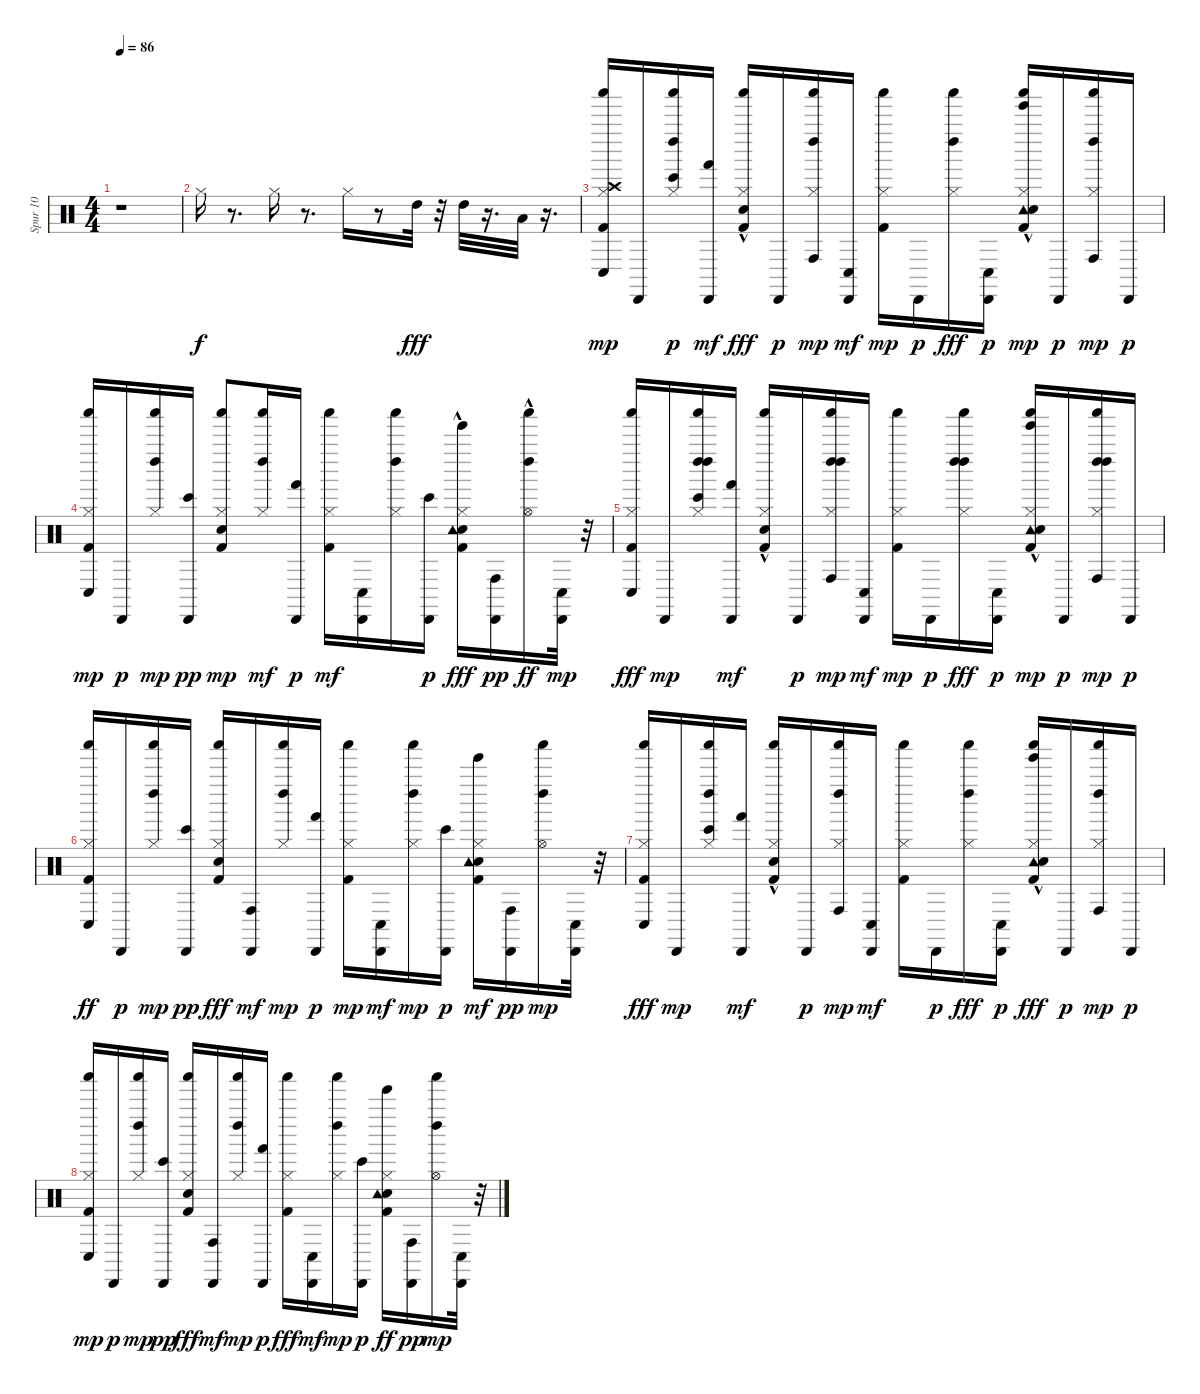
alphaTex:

\track ("Spur 10" "Spur 10") {instrument percussion}
\staff {score}
\articulation defaults
\ts (4 4)
\tempo 86
\clef neutral
\ks c
r.1{dy f} |
"Hi-Hat (closed)".16 r.8{d} "Hi-Hat (closed)".16 r.8{d} "Hi-Hat (closed)".16 r.8 "High Tom (hit)".32{dy fff} r.32 "High Tom (hit)".32 r.16{d} "Low Tom (hit)".32 r.16{d} |
("Crash high (hit)" "Kick (hit) 2" "Shaker (hit)" "Conga low (hit)" "Hi-Hat (closed)").16{dy mp} "Cabasa (hit)".16 ("Hi-Hat (closed)" "Shaker (hit)" "Bongo High (hit)" "Left Maraca (hit)").16{dy p} ("Cabasa (hit)" "Hand (hit)").16{dy mf} ("Hi-Hat (closed)" "Snare (hit) 2"{hac} "Shaker (hit)" "Kick (hit) 2").16{dy fff} "Cabasa (hit)".16{dy p} ("Hi-Hat (closed)" "Conga high (hit)" "Shaker (hit)" "Left Maraca (hit)").16{dy mp} ("Cabasa (hit)" "Conga low (hit)").16{dy mf} ("Shaker (hit)" "Kick (hit) 2" "Hi-Hat (closed)").16{dy mp} "Cabasa (hit)".16{dy p} ("Shaker (hit)" "Hi-Hat (closed)" "Left Maraca (hit)").16{dy fff} ("Cabasa (hit)" "Conga low (hit)").16{dy p} ("Tinkle Bell (hit)" "Tambourine (hit)"{hac} "Shaker (hit)" "Kick (hit) 2" "Snare (hit) 2"{hac} "Hi-Hat (closed)").16{dy mp} "Cabasa (hit)".16{dy p} ("Shaker (hit)" "Conga high (hit)" "Hi-Hat (closed)" "Left Maraca (hit)").16{dy mp} "Cabasa (hit)".16{dy p} |
("Shaker (hit)" "Kick (hit) 2" "Conga low (hit)" "Hi-Hat (closed)").16{dy mp} "Cabasa (hit)".16{dy p} ("Shaker (hit)" "Hi-Hat (closed)" "Left Maraca (hit)").16{dy mp} ("Bongo High (hit)" "Cabasa (hit)").16{dy pp} ("Shaker (hit)" "Kick (hit) 2" "Snare (hit) 2" "Hi-Hat (closed)").8{dy mp} ("Shaker (hit)" "Hi-Hat (closed)" "Left Maraca (hit)").16{dy mf} ("Hand (hit)" "Cabasa (hit)").16{dy p} ("Shaker (hit)" "Kick (hit) 2" "Hi-Hat (closed)").16{dy mf} ("Cabasa (hit)" "Conga low (hit)").16 ("Shaker (hit)" "Hi-Hat (closed)" "Left Maraca (hit)").16 ("Bongo High (hit)" "Cabasa (hit)").16{dy p} ("Tinkle Bell (hit)"{hac} "Snare (hit) 2" "Tambourine (hit)" "Hi-Hat (closed)" "Kick (hit) 2").16{dy fff} ("Conga high (hit)" "Cabasa (hit)").16{dy pp} ("Shaker (hit)" "Hi-Hat (open)"{hac} "Left Maraca (hit)").16{dy ff} ("Conga low (hit)" "Cabasa (hit)").32{dy mp} r.32 |
("Hi-Hat (closed)" "Kick (hit) 2" "Shaker (hit)" "Conga low (hit)").16{dy fff} "Cabasa (hit)".16{dy mp} ("Shaker (hit)" "Bongo High (hit)" "Hi-Hat (closed)" "Left Maraca (hit)" "Left Maraca (hit)").16 ("Cabasa (hit)" "Hand (hit)").16{dy mf} ("Snare (hit) 2"{hac} "Shaker (hit)" "Kick (hit) 2" "Hi-Hat (closed)").16 "Cabasa (hit)".16{dy p} ("Hi-Hat (closed)" "Conga high (hit)" "Shaker (hit)" "Left Maraca (hit)" "Left Maraca (hit)").16{dy mp} ("Cabasa (hit)" "Conga low (hit)").16{dy mf} ("Shaker (hit)" "Kick (hit) 2" "Hi-Hat (closed)").16{dy mp} "Cabasa (hit)".16{dy p} ("Shaker (hit)" "Hi-Hat (closed)" "Left Maraca (hit)" "Left Maraca (hit)").16{dy fff} ("Cabasa (hit)" "Conga low (hit)").16{dy p} ("Tinkle Bell (hit)"{hac} "Tambourine (hit)"{hac} "Shaker (hit)" "Kick (hit) 2" "Snare (hit) 2"{hac} "Hi-Hat (closed)").16{dy mp} "Cabasa (hit)".16{dy p} ("Shaker (hit)" "Conga high (hit)" "Hi-Hat (closed)" "Left Maraca (hit)" "Left Maraca (hit)").16{dy mp} "Cabasa (hit)".16{dy p} |
("Hi-Hat (closed)" "Shaker (hit)" "Kick (hit) 2" "Conga low (hit)").16{dy ff} "Cabasa (hit)".16{dy p} ("Hi-Hat (closed)" "Shaker (hit)" "Left Maraca (hit)").16{dy mp} ("Bongo High (hit)" "Cabasa (hit)").16{dy pp} ("Hi-Hat (closed)" "Shaker (hit)" "Kick (hit) 2" "Snare (hit) 2").16{dy fff} ("Cabasa (hit)" "Conga high (hit)").16{dy mf} ("Hi-Hat (closed)" "Shaker (hit)" "Left Maraca (hit)").16{dy mp} ("Hand (hit)" "Cabasa (hit)").16{dy p} ("Shaker (hit)" "Kick (hit) 2" "Hi-Hat (closed)").16{dy mp} ("Cabasa (hit)" "Conga low (hit)").16{dy mf} ("Hi-Hat (closed)" "Shaker (hit)" "Left Maraca (hit)").16{dy mp} ("Bongo High (hit)" "Cabasa (hit)").16{dy p} ("Kick (hit) 2" "Tinkle Bell (hit)" "Snare (hit) 2" "Tambourine (hit)" "Hi-Hat (closed)").16{dy mf} ("Conga high (hit)" "Cabasa (hit)").16{dy pp} ("Hi-Hat (open)" "Shaker (hit)" "Left Maraca (hit)").16{dy mp} ("Conga low (hit)" "Cabasa (hit)").32 r.32 |
("Hi-Hat (closed)" "Kick (hit) 2" "Shaker (hit)" "Conga low (hit)").16{dy fff} "Cabasa (hit)".16{dy mp} ("Shaker (hit)" "Bongo High (hit)" "Hi-Hat (closed)" "Left Maraca (hit)").16 ("Cabasa (hit)" "Hand (hit)").16{dy mf} ("Snare (hit) 2"{hac} "Shaker (hit)" "Kick (hit) 2" "Hi-Hat (closed)").16 "Cabasa (hit)".16{dy p} ("Conga high (hit)" "Shaker (hit)" "Hi-Hat (closed)" "Left Maraca (hit)").16{dy mp} ("Cabasa (hit)" "Conga low (hit)").16{dy mf} ("Shaker (hit)" "Kick (hit) 2" "Hi-Hat (closed)").16 "Cabasa (hit)".16{dy p} ("Shaker (hit)" "Hi-Hat (closed)" "Left Maraca (hit)").16{dy fff} ("Cabasa (hit)" "Conga low (hit)").16{dy p} ("Hi-Hat (closed)" "Tinkle Bell (hit)"{hac} "Tambourine (hit)"{hac} "Shaker (hit)" "Kick (hit) 2" "Snare (hit) 2"{hac}).16{dy fff} "Cabasa (hit)".16{dy p} ("Shaker (hit)" "Conga high (hit)" "Hi-Hat (closed)" "Left Maraca (hit)").16{dy mp} "Cabasa (hit)".16{dy p} |
("Shaker (hit)" "Kick (hit) 2" "Conga low (hit)" "Hi-Hat (closed)").16{dy mp} "Cabasa (hit)".16{dy p} ("Hi-Hat (closed)" "Shaker (hit)" "Left Maraca (hit)").16{dy mp} ("Bongo High (hit)" "Cabasa (hit)").16{dy pp} ("Hi-Hat (closed)" "Shaker (hit)" "Kick (hit) 2" "Snare (hit) 2").16{dy fff} ("Cabasa (hit)" "Conga high (hit)").16{dy mf} ("Shaker (hit)" "Hi-Hat (closed)" "Left Maraca (hit)").16{dy mp} ("Hand (hit)" "Cabasa (hit)").16{dy p} ("Hi-Hat (closed)" "Shaker (hit)" "Kick (hit) 2").16{dy fff} ("Cabasa (hit)" "Conga low (hit)").16{dy mf} ("Shaker (hit)" "Hi-Hat (closed)" "Left Maraca (hit)").16{dy mp} ("Bongo High (hit)" "Cabasa (hit)").16{dy p} ("Kick (hit) 2" "Snare (hit) 2" "Tambourine (hit)" "Tinkle Bell (hit)" "Hi-Hat (closed)").16{dy ff} ("Conga high (hit)" "Cabasa (hit)").16{dy pp} ("Hi-Hat (open)" "Shaker (hit)" "Left Maraca (hit)").16{dy mp} ("Conga low (hit)" "Cabasa (hit)").32 r.32
